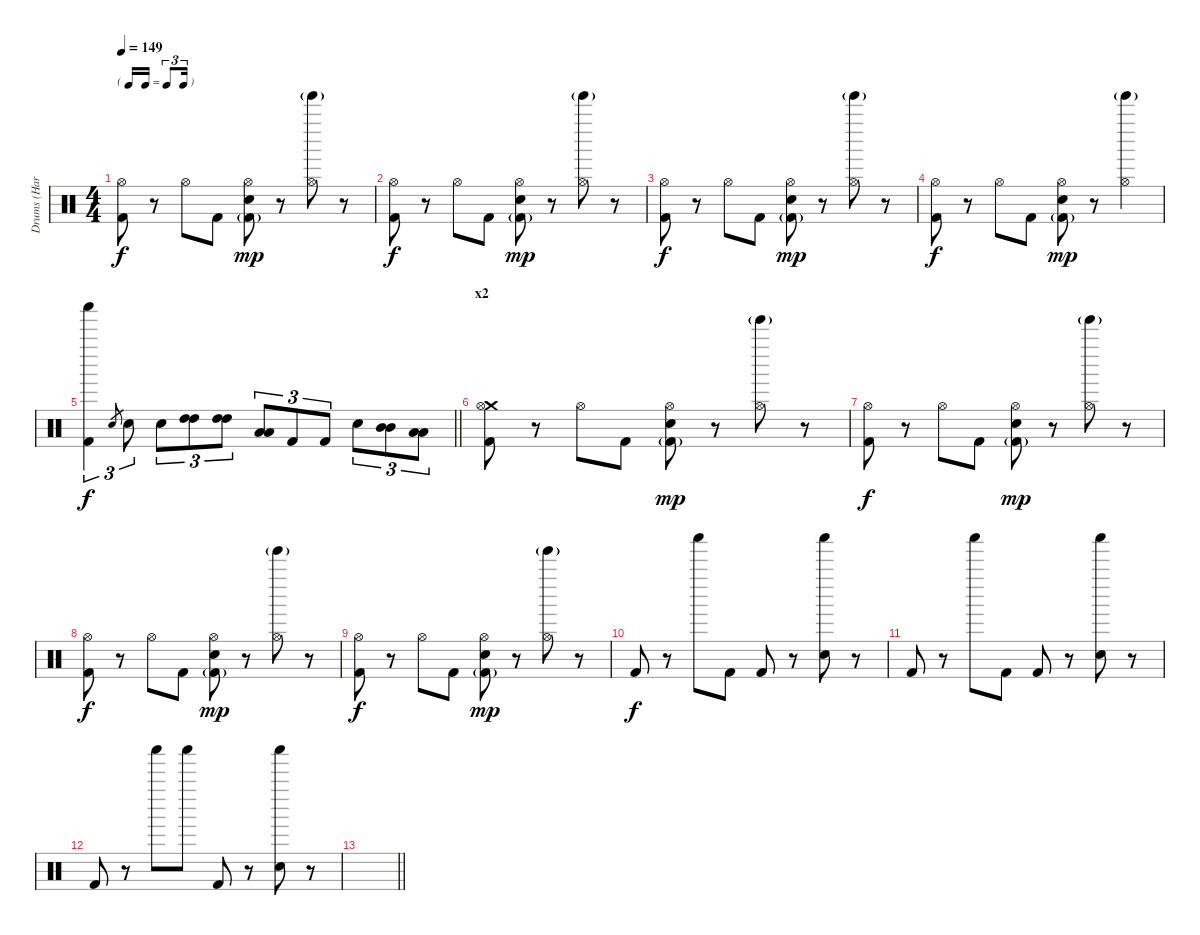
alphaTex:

\track ("Drums (Harry)" "Drums (Har") {instrument percussion}
\staff {score}
\articulation defaults
\ts (4 4)
\tf triplet16th
\tempo 149
\clef neutral
\ks c
("Hi-Hat (open)" "Kick (hit) 2").8{dy f} r.8 "Hi-Hat (open)".8 "Kick (hit) 2".8 ("Hi-Hat (open)" "Electric Snare (hit)" "Kick (hit) 2"{g}).8{dy mp} r.8 ("Tinkle Bell (hit)"{g} "Hi-Hat (open)").8 r.8 |
("Hi-Hat (open)" "Kick (hit) 2").8{dy f} r.8 "Hi-Hat (open)".8 "Kick (hit) 2".8 ("Hi-Hat (open)" "Electric Snare (hit)" "Kick (hit) 2"{g}).8{dy mp} r.8 ("Tinkle Bell (hit)"{g} "Hi-Hat (open)").8 r.8 |
("Hi-Hat (open)" "Kick (hit) 2").8{dy f} r.8 "Hi-Hat (open)".8 "Kick (hit) 2".8 ("Hi-Hat (open)" "Electric Snare (hit)" "Kick (hit) 2"{g}).8{dy mp} r.8 ("Tinkle Bell (hit)"{g} "Hi-Hat (open)").8 r.8 |
("Hi-Hat (open)" "Kick (hit) 2").8{dy f} r.8 "Hi-Hat (open)".8 "Kick (hit) 2".8 ("Hi-Hat (open)" "Electric Snare (hit)" "Kick (hit) 2"{g}).8{dy mp} r.8 ("Tinkle Bell (hit)"{g} "Hi-Hat (open)").4 |
\barLineRight lightlight
("Shaker (hit)" "Kick (hit) 2").4{tu (3 2) dy f} "Electric Snare (hit)".8{gr} "Electric Snare (hit)".8{tu (3 2)} "Electric Snare (hit)".8{tu (3 2)} ("High Tom (hit)" "High Tom (hit)").8{tu (3 2)} ("High Tom (hit)" "High Tom (hit)").8{tu (3 2)} ("Low Tom (hit)" "Low Tom (hit)").8{tu (3 2)} "Kick (hit) 2".8{tu (3 2)} "Kick (hit) 2".8{tu (3 2)} "Electric Snare (hit)".8{tu (3 2)} ("Mid Tom (hit)" "Mid Tom (hit)").8{tu (3 2)} ("Low Tom (hit)" "Low Tom (hit)").8{tu (3 2)} |
\section ("" "x2")
("Crash medium (hit)" "Hi-Hat (open)" "Kick (hit) 2").8 r.8 "Hi-Hat (open)".8 "Kick (hit) 2".8 ("Hi-Hat (open)" "Electric Snare (hit)" "Kick (hit) 2"{g}).8{dy mp} r.8 ("Tinkle Bell (hit)"{g} "Hi-Hat (open)").8 r.8 |
("Hi-Hat (open)" "Kick (hit) 2").8{dy f} r.8 "Hi-Hat (open)".8 "Kick (hit) 2".8 ("Hi-Hat (open)" "Electric Snare (hit)" "Kick (hit) 2"{g}).8{dy mp} r.8 ("Tinkle Bell (hit)"{g} "Hi-Hat (open)").8 r.8 |
("Hi-Hat (open)" "Kick (hit) 2").8{dy f} r.8 "Hi-Hat (open)".8 "Kick (hit) 2".8 ("Hi-Hat (open)" "Electric Snare (hit)" "Kick (hit) 2"{g}).8{dy mp} r.8 ("Tinkle Bell (hit)"{g} "Hi-Hat (open)").8 r.8 |
("Hi-Hat (open)" "Kick (hit) 2").8{dy f} r.8 "Hi-Hat (open)".8 "Kick (hit) 2".8 ("Hi-Hat (open)" "Electric Snare (hit)" "Kick (hit) 2"{g}).8{dy mp} r.8 ("Tinkle Bell (hit)"{g} "Hi-Hat (open)").8 r.8 |
"Kick (hit) 2".8{dy f} r.8 "Shaker (hit)".8 "Kick (hit) 2".8 "Kick (hit) 2".8 r.8 ("Shaker (hit)" "Hand Clap (hit)").8 r.8 |
"Kick (hit) 2".8 r.8 "Shaker (hit)".8 "Kick (hit) 2".8 "Kick (hit) 2".8 r.8 ("Shaker (hit)" "Hand Clap (hit)").8 r.8 |
"Kick (hit) 2".8 r.8 "Shaker (hit)".8 "Shaker (hit)".8 "Kick (hit) 2".8 r.8 ("Shaker (hit)" "Hand Clap (hit)").8 r.8 |
\barLineRight lightlight
